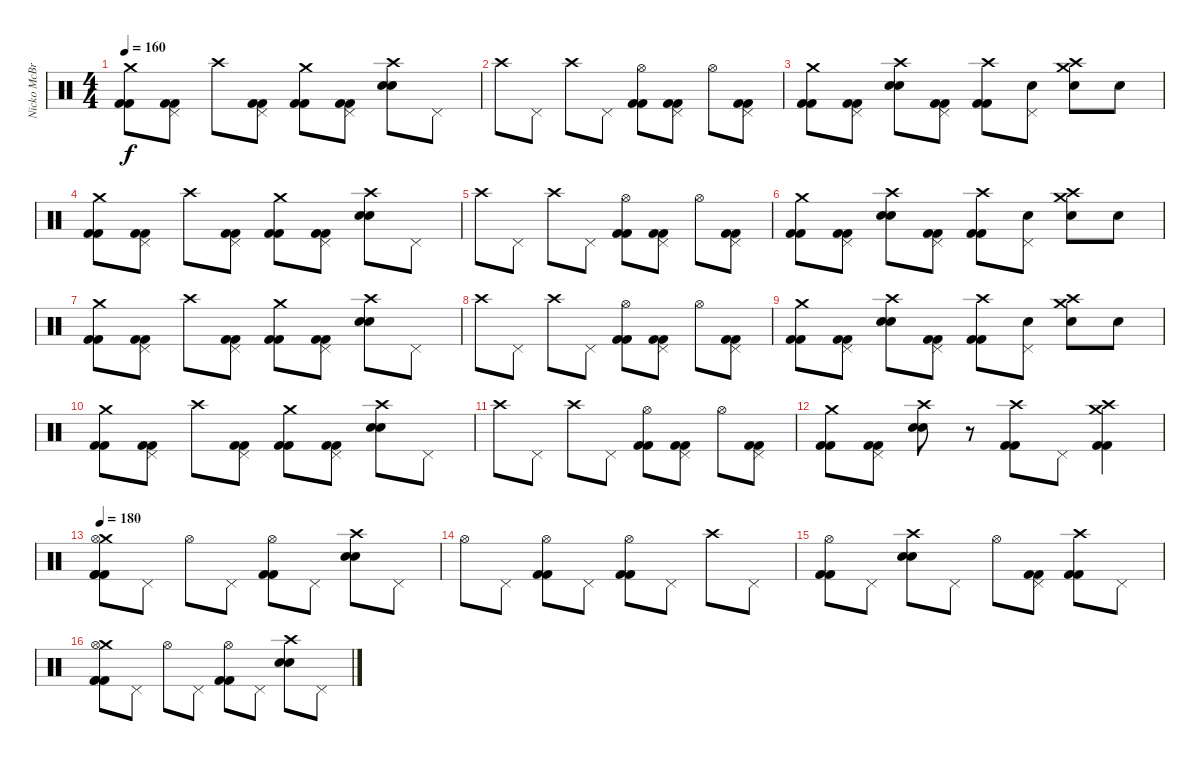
\track ("Nicko McBrain" "Nicko McBr") {instrument percussion}
\staff {score}
\articulation defaults
\ts (4 4)
\tempo 160
\clef neutral
\ks c
("Crash medium (hit)" "Kick (hit) 2" "Kick (hit) 2").8{dy f} ("Pedal Hi-Hat (hit)" "Kick (hit) 2" "Kick (hit) 2").8 "Crash high (hit)".8 ("Pedal Hi-Hat (hit)" "Kick (hit) 2" "Kick (hit) 2").8 ("Crash medium (hit)" "Kick (hit) 2" "Kick (hit) 2").8 ("Pedal Hi-Hat (hit)" "Kick (hit) 2" "Kick (hit) 2").8 ("Crash high (hit)" "Snare (hit) 2" "Snare (hit) 2").8 "Pedal Hi-Hat (hit)".8 |
"Crash high (hit)".8 "Pedal Hi-Hat (hit)".8 "Crash high (hit)".8 "Pedal Hi-Hat (hit)".8 ("Hi-Hat (open)" "Kick (hit) 2" "Kick (hit) 2").8 ("Pedal Hi-Hat (hit)" "Kick (hit) 2" "Kick (hit) 2").8 "Hi-Hat (open)".8 ("Pedal Hi-Hat (hit)" "Kick (hit) 2" "Kick (hit) 2").8 |
("Crash medium (hit)" "Kick (hit) 2" "Kick (hit) 2").8 ("Pedal Hi-Hat (hit)" "Kick (hit) 2" "Kick (hit) 2").8 ("Crash high (hit)" "Snare (hit) 2" "Snare (hit) 2").8 ("Pedal Hi-Hat (hit)" "Kick (hit) 2" "Kick (hit) 2").8 ("Crash high (hit)" "Kick (hit) 2" "Kick (hit) 2").8 ("Pedal Hi-Hat (hit)" "Snare (hit) 2").8 ("Crash high (hit)" "Crash medium (hit)" "Snare (hit) 2").8 "Snare (hit) 2".8 |
("Crash medium (hit)" "Kick (hit) 2" "Kick (hit) 2").8 ("Pedal Hi-Hat (hit)" "Kick (hit) 2" "Kick (hit) 2").8 "Crash high (hit)".8 ("Pedal Hi-Hat (hit)" "Kick (hit) 2" "Kick (hit) 2").8 ("Crash medium (hit)" "Kick (hit) 2" "Kick (hit) 2").8 ("Pedal Hi-Hat (hit)" "Kick (hit) 2" "Kick (hit) 2").8 ("Crash high (hit)" "Snare (hit) 2" "Snare (hit) 2").8 "Pedal Hi-Hat (hit)".8 |
"Crash high (hit)".8 "Pedal Hi-Hat (hit)".8 "Crash high (hit)".8 "Pedal Hi-Hat (hit)".8 ("Hi-Hat (open)" "Kick (hit) 2" "Kick (hit) 2").8 ("Pedal Hi-Hat (hit)" "Kick (hit) 2" "Kick (hit) 2").8 "Hi-Hat (open)".8 ("Pedal Hi-Hat (hit)" "Kick (hit) 2" "Kick (hit) 2").8 |
("Crash medium (hit)" "Kick (hit) 2" "Kick (hit) 2").8 ("Pedal Hi-Hat (hit)" "Kick (hit) 2" "Kick (hit) 2").8 ("Crash high (hit)" "Snare (hit) 2" "Snare (hit) 2").8 ("Pedal Hi-Hat (hit)" "Kick (hit) 2" "Kick (hit) 2").8 ("Crash high (hit)" "Kick (hit) 2" "Kick (hit) 2").8 ("Pedal Hi-Hat (hit)" "Snare (hit) 2").8 ("Crash high (hit)" "Crash medium (hit)" "Snare (hit) 2").8 "Snare (hit) 2".8 |
("Crash medium (hit)" "Kick (hit) 2" "Kick (hit) 2").8 ("Pedal Hi-Hat (hit)" "Kick (hit) 2" "Kick (hit) 2").8 "Crash high (hit)".8 ("Pedal Hi-Hat (hit)" "Kick (hit) 2" "Kick (hit) 2").8 ("Crash medium (hit)" "Kick (hit) 2" "Kick (hit) 2").8 ("Pedal Hi-Hat (hit)" "Kick (hit) 2" "Kick (hit) 2").8 ("Crash high (hit)" "Snare (hit) 2" "Snare (hit) 2").8 "Pedal Hi-Hat (hit)".8 |
"Crash high (hit)".8 "Pedal Hi-Hat (hit)".8 "Crash high (hit)".8 "Pedal Hi-Hat (hit)".8 ("Hi-Hat (open)" "Kick (hit) 2" "Kick (hit) 2").8 ("Pedal Hi-Hat (hit)" "Kick (hit) 2" "Kick (hit) 2").8 "Hi-Hat (open)".8 ("Pedal Hi-Hat (hit)" "Kick (hit) 2" "Kick (hit) 2").8 |
("Crash medium (hit)" "Kick (hit) 2" "Kick (hit) 2").8 ("Pedal Hi-Hat (hit)" "Kick (hit) 2" "Kick (hit) 2").8 ("Crash high (hit)" "Snare (hit) 2" "Snare (hit) 2").8 ("Pedal Hi-Hat (hit)" "Kick (hit) 2" "Kick (hit) 2").8 ("Crash high (hit)" "Kick (hit) 2" "Kick (hit) 2").8 ("Pedal Hi-Hat (hit)" "Snare (hit) 2").8 ("Crash high (hit)" "Crash medium (hit)" "Snare (hit) 2").8 "Snare (hit) 2".8 |
("Crash medium (hit)" "Kick (hit) 2" "Kick (hit) 2").8 ("Pedal Hi-Hat (hit)" "Kick (hit) 2" "Kick (hit) 2").8 "Crash high (hit)".8 ("Pedal Hi-Hat (hit)" "Kick (hit) 2" "Kick (hit) 2").8 ("Crash medium (hit)" "Kick (hit) 2" "Kick (hit) 2").8 ("Pedal Hi-Hat (hit)" "Kick (hit) 2" "Kick (hit) 2").8 ("Crash high (hit)" "Snare (hit) 2" "Snare (hit) 2").8 "Pedal Hi-Hat (hit)".8 |
"Crash high (hit)".8 "Pedal Hi-Hat (hit)".8 "Crash high (hit)".8 "Pedal Hi-Hat (hit)".8 ("Hi-Hat (open)" "Kick (hit) 2" "Kick (hit) 2").8 ("Pedal Hi-Hat (hit)" "Kick (hit) 2" "Kick (hit) 2").8 "Hi-Hat (open)".8 ("Pedal Hi-Hat (hit)" "Kick (hit) 2" "Kick (hit) 2").8 |
("Crash medium (hit)" "Kick (hit) 2" "Kick (hit) 2").8 ("Pedal Hi-Hat (hit)" "Kick (hit) 2" "Kick (hit) 2").8 ("Crash high (hit)" "Snare (hit) 2" "Snare (hit) 2").8 r.8 ("Crash high (hit)" "Kick (hit) 2" "Kick (hit) 2").8 "Pedal Hi-Hat (hit)".8 ("Crash high (hit)" "Crash medium (hit)" "Kick (hit) 2" "Kick (hit) 2").4 |
\tempo 180
("Crash medium (hit)" "Hi-Hat (open)" "Kick (hit) 2" "Kick (hit) 2" "Kick (hit) 2").8 "Pedal Hi-Hat (hit)".8 "Hi-Hat (open)".8 "Pedal Hi-Hat (hit)".8 ("Hi-Hat (open)" "Kick (hit) 2" "Kick (hit) 2").8 "Pedal Hi-Hat (hit)".8 ("Crash high (hit)" "Snare (hit) 2" "Snare (hit) 2").8 "Pedal Hi-Hat (hit)".8 |
"Hi-Hat (open)".8 "Pedal Hi-Hat (hit)".8 ("Hi-Hat (open)" "Kick (hit) 2" "Kick (hit) 2").8 "Pedal Hi-Hat (hit)".8 ("Hi-Hat (open)" "Kick (hit) 2" "Kick (hit) 2").8 "Pedal Hi-Hat (hit)".8 "Crash high (hit)".8 "Pedal Hi-Hat (hit)".8 |
("Hi-Hat (open)" "Kick (hit) 2" "Kick (hit) 2").8 "Pedal Hi-Hat (hit)".8 ("Crash high (hit)" "Snare (hit) 2" "Snare (hit) 2").8 "Pedal Hi-Hat (hit)".8 "Hi-Hat (open)".8 ("Pedal Hi-Hat (hit)" "Kick (hit) 2" "Kick (hit) 2").8 ("Crash high (hit)" "Kick (hit) 2" "Kick (hit) 2").8 "Pedal Hi-Hat (hit)".8 |
("Crash medium (hit)" "Hi-Hat (open)" "Kick (hit) 2" "Kick (hit) 2" "Kick (hit) 2").8 "Pedal Hi-Hat (hit)".8 "Hi-Hat (open)".8 "Pedal Hi-Hat (hit)".8 ("Hi-Hat (open)" "Kick (hit) 2" "Kick (hit) 2").8 "Pedal Hi-Hat (hit)".8 ("Crash high (hit)" "Snare (hit) 2" "Snare (hit) 2").8 "Pedal Hi-Hat (hit)".8
